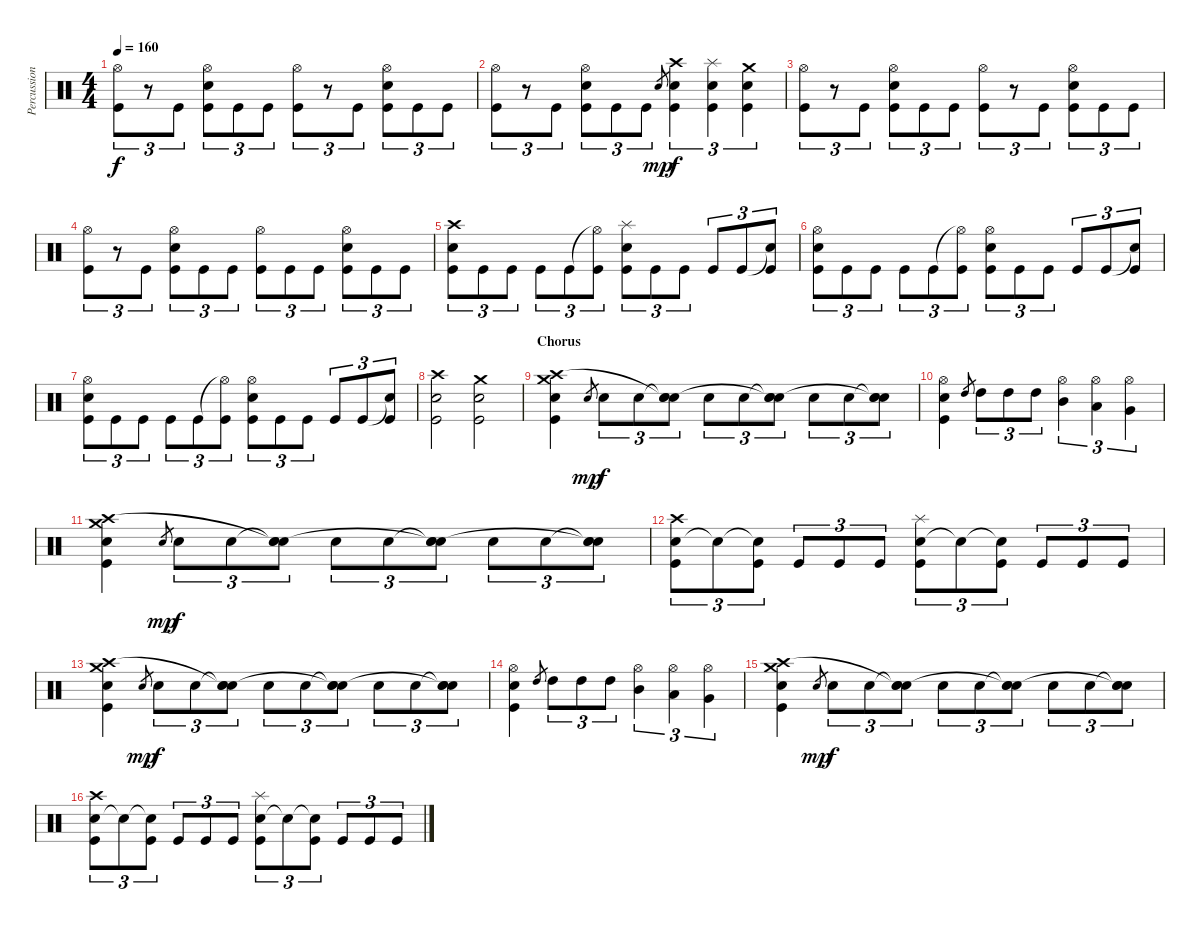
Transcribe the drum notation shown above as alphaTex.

\track ("Percussion" "Percussion") {instrument percussion}
\staff {score}
\articulation defaults
\ts (4 4)
\tempo 160
\clef neutral
\ks c
("Hi-Hat (open)" "Kick (hit)").8{tu (3 2) dy f} r.8{tu (3 2)} "Kick (hit)".8{tu (3 2)} ("Hi-Hat (open)" "Snare (hit) 2" "Kick (hit)").8{tu (3 2)} "Kick (hit)".8{tu (3 2)} "Kick (hit)".8{tu (3 2)} ("Hi-Hat (open)" "Kick (hit)").8{tu (3 2)} r.8{tu (3 2)} "Kick (hit)".8{tu (3 2)} ("Hi-Hat (open)" "Snare (hit) 2" "Kick (hit)").8{tu (3 2)} "Kick (hit)".8{tu (3 2)} "Kick (hit)".8{tu (3 2)} |
("Hi-Hat (open)" "Kick (hit)").8{tu (3 2)} r.8{tu (3 2)} "Kick (hit)".8{tu (3 2)} ("Hi-Hat (open)" "Snare (hit) 2" "Kick (hit)").8{tu (3 2)} "Kick (hit)".8{tu (3 2)} "Kick (hit)".8{tu (3 2)} "Snare (hit) 2".8{gr dy mp} ("Snare (hit) 2" "Crash high (hit)" "Kick (hit)").4{tu (3 2) dy f} ("Snare (hit) 2" "Splash (hit)" "Kick (hit)").4{tu (3 2)} ("Snare (hit) 2" "Crash medium (hit)" "Kick (hit)").4{tu (3 2)} |
("Hi-Hat (open)" "Kick (hit)").8{tu (3 2)} r.8{tu (3 2)} "Kick (hit)".8{tu (3 2)} ("Hi-Hat (open)" "Snare (hit) 2" "Kick (hit)").8{tu (3 2)} "Kick (hit)".8{tu (3 2)} "Kick (hit)".8{tu (3 2)} ("Hi-Hat (open)" "Kick (hit)").8{tu (3 2)} r.8{tu (3 2)} "Kick (hit)".8{tu (3 2)} ("Hi-Hat (open)" "Snare (hit) 2" "Kick (hit)").8{tu (3 2)} "Kick (hit)".8{tu (3 2)} "Kick (hit)".8{tu (3 2)} |
("Hi-Hat (open)" "Kick (hit)").8{tu (3 2)} r.8{tu (3 2)} "Kick (hit)".8{tu (3 2)} ("Hi-Hat (open)" "Snare (hit) 2" "Kick (hit)").8{tu (3 2)} "Kick (hit)".8{tu (3 2)} "Kick (hit)".8{tu (3 2)} ("Hi-Hat (open)" "Kick (hit)").8{tu (3 2)} "Kick (hit)".8{tu (3 2)} "Kick (hit)".8{tu (3 2)} ("Hi-Hat (open)" "Snare (hit) 2" "Kick (hit)").8{tu (3 2)} "Kick (hit)".8{tu (3 2)} "Kick (hit)".8{tu (3 2)} |
("Snare (hit) 2" "Crash high (hit)" "Kick (hit)").8{tu (3 2)} "Kick (hit)".8{tu (3 2)} "Kick (hit)".8{tu (3 2)} "Kick (hit)".8{tu (3 2)} "Kick (hit)".8{tu (3 2)} ("Hi-Hat (open)"{t} "Kick (hit)").8{tu (3 2)} ("Splash (hit)" "Snare (hit) 2" "Kick (hit)").8{tu (3 2)} "Kick (hit)".8{tu (3 2)} "Kick (hit)".8{tu (3 2)} "Kick (hit)".8{tu (3 2)} "Kick (hit)".8{tu (3 2)} ("Snare (hit)"{t} "Kick (hit)").8{tu (3 2)} |
("Snare (hit) 2" "Hi-Hat (open)" "Kick (hit)").8{tu (3 2)} "Kick (hit)".8{tu (3 2)} "Kick (hit)".8{tu (3 2)} "Kick (hit)".8{tu (3 2)} "Kick (hit)".8{tu (3 2)} ("Hi-Hat (open)"{t} "Kick (hit)").8{tu (3 2)} ("Hi-Hat (open)" "Snare (hit) 2" "Kick (hit)").8{tu (3 2)} "Kick (hit)".8{tu (3 2)} "Kick (hit)".8{tu (3 2)} "Kick (hit)".8{tu (3 2)} "Kick (hit)".8{tu (3 2)} ("Snare (hit)"{t} "Kick (hit)").8{tu (3 2)} |
("Snare (hit) 2" "Hi-Hat (open)" "Kick (hit)").8{tu (3 2)} "Kick (hit)".8{tu (3 2)} "Kick (hit)".8{tu (3 2)} "Kick (hit)".8{tu (3 2)} "Kick (hit)".8{tu (3 2)} ("Hi-Hat (open)"{t} "Kick (hit)").8{tu (3 2)} ("Hi-Hat (open)" "Snare (hit) 2" "Kick (hit)").8{tu (3 2)} "Kick (hit)".8{tu (3 2)} "Kick (hit)".8{tu (3 2)} "Kick (hit)".8{tu (3 2)} "Kick (hit)".8{tu (3 2)} ("Snare (hit)"{t} "Kick (hit)").8{tu (3 2)} |
("Crash high (hit)" "Snare (hit) 2" "Kick (hit)").2 ("Crash medium (hit)" "Snare (hit) 2" "Kick (hit)").2 |
\section ("" "Chorus")
("Crash medium (hit)" "Crash high (hit)" "Snare (hit) 2" "Kick (hit)").4 "Snare (hit) 2".8{gr dy mp} "Snare (hit) 2".8{tu (3 2) dy f} "Snare (hit) 2".8{tu (3 2)} ("Snare (hit)"{t} "Snare (hit)"{t} "Snare (hit) 2").8{tu (3 2)} "Snare (hit) 2".8{tu (3 2)} "Snare (hit) 2".8{tu (3 2)} ("Snare (hit)"{t} "Snare (hit)"{t} "Snare (hit) 2").8{tu (3 2)} "Snare (hit) 2".8{tu (3 2)} "Snare (hit) 2".8{tu (3 2)} ("Snare (hit)"{t} "Snare (hit)"{t} "Snare (hit) 2").8{tu (3 2)} |
("Hi-Hat (open)" "Snare (hit) 2" "Kick (hit)").4 "High Tom (hit)".8{gr} "High Tom (hit)".8{tu (3 2)} "High Tom (hit)".8{tu (3 2)} "High Tom (hit)".8{tu (3 2)} ("Hi-Hat (open)" "Mid Tom (hit)").4{tu (3 2)} ("Hi-Hat (open)" "Low Tom (hit)").4{tu (3 2)} ("Hi-Hat (open)" "Very Low Tom (hit)").4{tu (3 2)} |
("Crash medium (hit)" "Crash high (hit)" "Snare (hit) 2" "Kick (hit)").4 "Snare (hit) 2".8{gr dy mp} "Snare (hit) 2".8{tu (3 2) dy f} "Snare (hit) 2".8{tu (3 2)} ("Snare (hit)"{t} "Snare (hit)"{t} "Snare (hit) 2").8{tu (3 2)} "Snare (hit) 2".8{tu (3 2)} "Snare (hit) 2".8{tu (3 2)} ("Snare (hit)"{t} "Snare (hit)"{t} "Snare (hit) 2").8{tu (3 2)} "Snare (hit) 2".8{tu (3 2)} "Snare (hit) 2".8{tu (3 2)} ("Snare (hit)"{t} "Snare (hit)"{t} "Snare (hit) 2").8{tu (3 2)} |
("Snare (hit) 2" "Crash high (hit)" "Kick (hit)").8{tu (3 2)} "Snare (hit)"{t}.8{tu (3 2)} ("Snare (hit)"{t} "Kick (hit)").8{tu (3 2)} "Kick (hit)".8{tu (3 2)} "Kick (hit)".8{tu (3 2)} "Kick (hit)".8{tu (3 2)} ("Snare (hit) 2" "Splash (hit)" "Kick (hit)").8{tu (3 2)} "Snare (hit)"{t}.8{tu (3 2)} ("Snare (hit)"{t} "Kick (hit)").8{tu (3 2)} "Kick (hit)".8{tu (3 2)} "Kick (hit)".8{tu (3 2)} "Kick (hit)".8{tu (3 2)} |
("Crash medium (hit)" "Crash high (hit)" "Snare (hit) 2" "Kick (hit)").4 "Snare (hit) 2".8{gr dy mp} "Snare (hit) 2".8{tu (3 2) dy f} "Snare (hit) 2".8{tu (3 2)} ("Snare (hit)"{t} "Snare (hit)"{t} "Snare (hit) 2").8{tu (3 2)} "Snare (hit) 2".8{tu (3 2)} "Snare (hit) 2".8{tu (3 2)} ("Snare (hit)"{t} "Snare (hit)"{t} "Snare (hit) 2").8{tu (3 2)} "Snare (hit) 2".8{tu (3 2)} "Snare (hit) 2".8{tu (3 2)} ("Snare (hit)"{t} "Snare (hit)"{t} "Snare (hit) 2").8{tu (3 2)} |
("Hi-Hat (open)" "Snare (hit) 2" "Kick (hit)").4 "High Tom (hit)".8{gr} "High Tom (hit)".8{tu (3 2)} "High Tom (hit)".8{tu (3 2)} "High Tom (hit)".8{tu (3 2)} ("Hi-Hat (open)" "Mid Tom (hit)").4{tu (3 2)} ("Hi-Hat (open)" "Low Tom (hit)").4{tu (3 2)} ("Hi-Hat (open)" "Very Low Tom (hit)").4{tu (3 2)} |
("Crash medium (hit)" "Crash high (hit)" "Snare (hit) 2" "Kick (hit)").4 "Snare (hit) 2".8{gr dy mp} "Snare (hit) 2".8{tu (3 2) dy f} "Snare (hit) 2".8{tu (3 2)} ("Snare (hit)"{t} "Snare (hit)"{t} "Snare (hit) 2").8{tu (3 2)} "Snare (hit) 2".8{tu (3 2)} "Snare (hit) 2".8{tu (3 2)} ("Snare (hit)"{t} "Snare (hit)"{t} "Snare (hit) 2").8{tu (3 2)} "Snare (hit) 2".8{tu (3 2)} "Snare (hit) 2".8{tu (3 2)} ("Snare (hit)"{t} "Snare (hit)"{t} "Snare (hit) 2").8{tu (3 2)} |
("Snare (hit) 2" "Crash high (hit)" "Kick (hit)").8{tu (3 2)} "Snare (hit)"{t}.8{tu (3 2)} ("Snare (hit)"{t} "Kick (hit)").8{tu (3 2)} "Kick (hit)".8{tu (3 2)} "Kick (hit)".8{tu (3 2)} "Kick (hit)".8{tu (3 2)} ("Snare (hit) 2" "Splash (hit)" "Kick (hit)").8{tu (3 2)} "Snare (hit)"{t}.8{tu (3 2)} ("Snare (hit)"{t} "Kick (hit)").8{tu (3 2)} "Kick (hit)".8{tu (3 2)} "Kick (hit)".8{tu (3 2)} "Kick (hit)".8{tu (3 2)}
